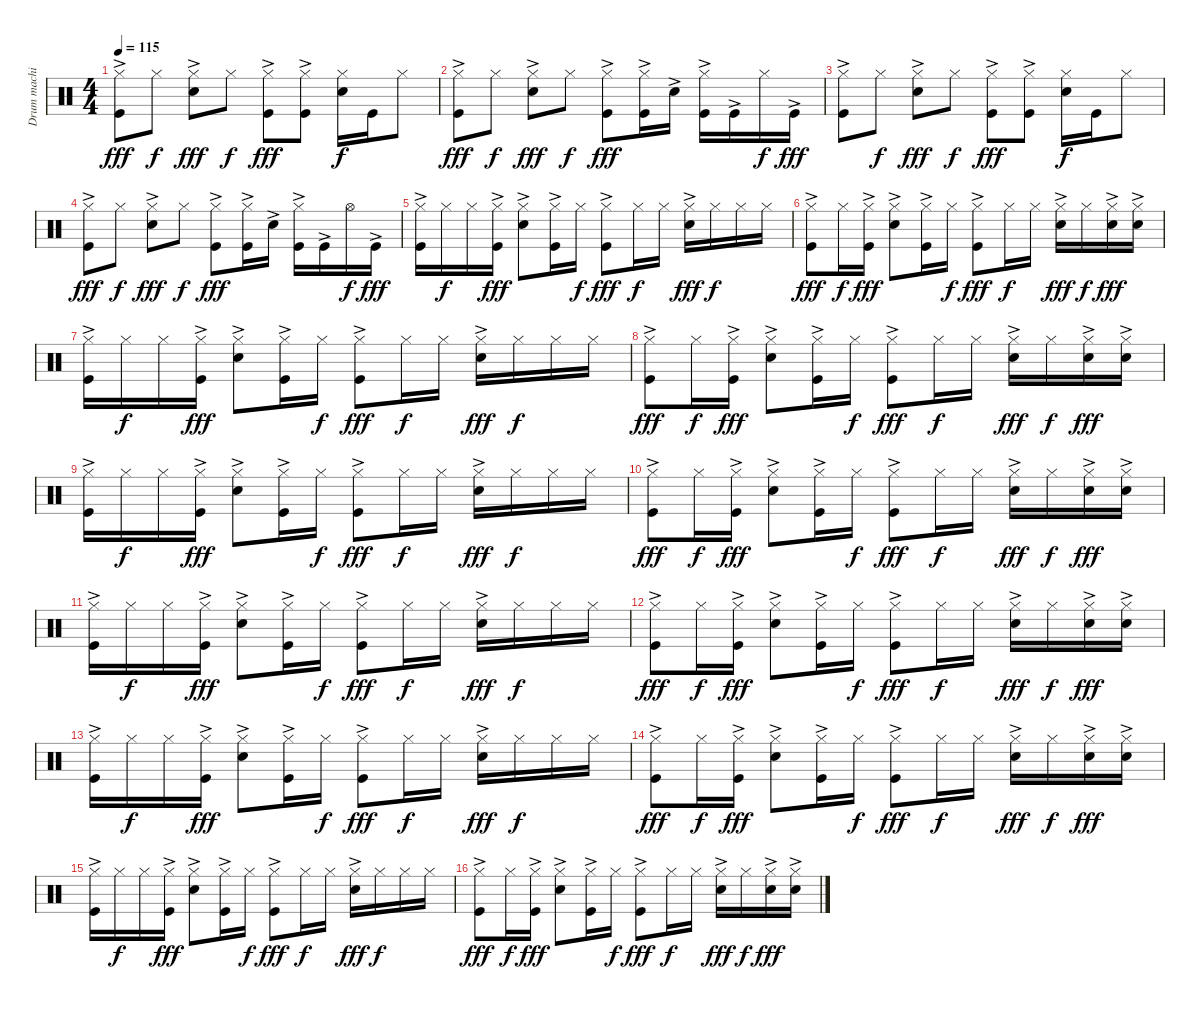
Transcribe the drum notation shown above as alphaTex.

\track ("Drum machine" "Drum machi") {instrument percussion}
\staff {score}
\articulation defaults
\ts (4 4)
\tempo 115
\clef neutral
\ks c
("Hi-Hat (closed)" "Kick (hit)"{ac}).8{dy fff} "Hi-Hat (closed)".8{dy f} ("Hi-Hat (closed)" "Snare (hit) 2"{ac}).8{dy fff} "Hi-Hat (closed)".8{dy f} ("Hi-Hat (closed)" "Kick (hit)"{ac}).8{dy fff} ("Hi-Hat (closed)" "Kick (hit)"{ac}).8 ("Hi-Hat (closed)" "Snare (hit) 2").16{dy f} "Kick (hit)".16 "Hi-Hat (closed)".8 |
("Hi-Hat (closed)" "Kick (hit)"{ac}).8{dy fff} "Hi-Hat (closed)".8{dy f} ("Hi-Hat (closed)" "Snare (hit) 2"{ac}).8{dy fff} "Hi-Hat (closed)".8{dy f} ("Hi-Hat (closed)" "Kick (hit)"{ac}).8{dy fff} ("Hi-Hat (closed)" "Kick (hit)"{ac}).16 "Snare (hit) 2"{ac}.16 ("Hi-Hat (closed)" "Kick (hit)"{ac}).16 "Kick (hit)"{ac}.16 "Hi-Hat (closed)".16{dy f} "Kick (hit)"{ac}.16{dy fff} |
("Hi-Hat (closed)" "Kick (hit)"{ac}).8 "Hi-Hat (closed)".8{dy f} ("Hi-Hat (closed)" "Snare (hit) 2"{ac}).8{dy fff} "Hi-Hat (closed)".8{dy f} ("Hi-Hat (closed)" "Kick (hit)"{ac}).8{dy fff} ("Hi-Hat (closed)" "Kick (hit)"{ac}).8 ("Hi-Hat (closed)" "Snare (hit) 2").16{dy f} "Kick (hit)".16 "Hi-Hat (closed)".8 |
("Hi-Hat (closed)" "Kick (hit)"{ac}).8{dy fff} "Hi-Hat (closed)".8{dy f} ("Hi-Hat (closed)" "Snare (hit) 2"{ac}).8{dy fff} "Hi-Hat (closed)".8{dy f} ("Hi-Hat (closed)" "Kick (hit)"{ac}).8{dy fff} ("Hi-Hat (closed)" "Kick (hit)"{ac}).16 "Snare (hit) 2"{ac}.16 ("Hi-Hat (closed)" "Kick (hit)"{ac}).16 "Kick (hit)"{ac}.16 "Hi-Hat (open)".16{dy f} "Kick (hit)"{ac}.16{dy fff} |
("Hi-Hat (closed)" "Kick (hit)"{ac}).16 "Hi-Hat (closed)".16{dy f} "Hi-Hat (closed)".16 ("Hi-Hat (closed)" "Kick (hit)"{ac}).16{dy fff} ("Hi-Hat (closed)" "Snare (hit) 2"{ac}).8 ("Hi-Hat (closed)" "Kick (hit)"{ac}).16 "Hi-Hat (closed)".16{dy f} ("Hi-Hat (closed)" "Kick (hit)"{ac}).8{dy fff} "Hi-Hat (closed)".16{dy f} "Hi-Hat (closed)".16 ("Hi-Hat (closed)" "Snare (hit) 2"{ac}).16{dy fff} "Hi-Hat (closed)".16{dy f} "Hi-Hat (closed)".16 "Hi-Hat (closed)".16 |
("Hi-Hat (closed)" "Kick (hit)"{ac}).8{dy fff} "Hi-Hat (closed)".16{dy f} ("Hi-Hat (closed)" "Kick (hit)"{ac}).16{dy fff} ("Hi-Hat (closed)" "Snare (hit) 2"{ac}).8 ("Hi-Hat (closed)" "Kick (hit)"{ac}).16 "Hi-Hat (closed)".16{dy f} ("Hi-Hat (closed)" "Kick (hit)"{ac}).8{dy fff} "Hi-Hat (closed)".16{dy f} "Hi-Hat (closed)".16 ("Hi-Hat (closed)" "Snare (hit) 2"{ac}).16{dy fff} "Hi-Hat (closed)".16{dy f} ("Hi-Hat (closed)" "Snare (hit) 2"{ac}).16{dy fff} ("Hi-Hat (closed)" "Snare (hit) 2"{ac}).16 |
("Hi-Hat (closed)" "Kick (hit)"{ac}).16 "Hi-Hat (closed)".16{dy f} "Hi-Hat (closed)".16 ("Hi-Hat (closed)" "Kick (hit)"{ac}).16{dy fff} ("Hi-Hat (closed)" "Snare (hit) 2"{ac}).8 ("Hi-Hat (closed)" "Kick (hit)"{ac}).16 "Hi-Hat (closed)".16{dy f} ("Hi-Hat (closed)" "Kick (hit)"{ac}).8{dy fff} "Hi-Hat (closed)".16{dy f} "Hi-Hat (closed)".16 ("Hi-Hat (closed)" "Snare (hit) 2"{ac}).16{dy fff} "Hi-Hat (closed)".16{dy f} "Hi-Hat (closed)".16 "Hi-Hat (closed)".16 |
("Hi-Hat (closed)" "Kick (hit)"{ac}).8{dy fff} "Hi-Hat (closed)".16{dy f} ("Hi-Hat (closed)" "Kick (hit)"{ac}).16{dy fff} ("Hi-Hat (closed)" "Snare (hit) 2"{ac}).8 ("Hi-Hat (closed)" "Kick (hit)"{ac}).16 "Hi-Hat (closed)".16{dy f} ("Hi-Hat (closed)" "Kick (hit)"{ac}).8{dy fff} "Hi-Hat (closed)".16{dy f} "Hi-Hat (closed)".16 ("Hi-Hat (closed)" "Snare (hit) 2"{ac}).16{dy fff} "Hi-Hat (closed)".16{dy f} ("Hi-Hat (closed)" "Snare (hit) 2"{ac}).16{dy fff} ("Hi-Hat (closed)" "Snare (hit) 2"{ac}).16 |
("Hi-Hat (closed)" "Kick (hit)"{ac}).16 "Hi-Hat (closed)".16{dy f} "Hi-Hat (closed)".16 ("Hi-Hat (closed)" "Kick (hit)"{ac}).16{dy fff} ("Hi-Hat (closed)" "Snare (hit) 2"{ac}).8 ("Hi-Hat (closed)" "Kick (hit)"{ac}).16 "Hi-Hat (closed)".16{dy f} ("Hi-Hat (closed)" "Kick (hit)"{ac}).8{dy fff} "Hi-Hat (closed)".16{dy f} "Hi-Hat (closed)".16 ("Hi-Hat (closed)" "Snare (hit) 2"{ac}).16{dy fff} "Hi-Hat (closed)".16{dy f} "Hi-Hat (closed)".16 "Hi-Hat (closed)".16 |
("Hi-Hat (closed)" "Kick (hit)"{ac}).8{dy fff} "Hi-Hat (closed)".16{dy f} ("Hi-Hat (closed)" "Kick (hit)"{ac}).16{dy fff} ("Hi-Hat (closed)" "Snare (hit) 2"{ac}).8 ("Hi-Hat (closed)" "Kick (hit)"{ac}).16 "Hi-Hat (closed)".16{dy f} ("Hi-Hat (closed)" "Kick (hit)"{ac}).8{dy fff} "Hi-Hat (closed)".16{dy f} "Hi-Hat (closed)".16 ("Hi-Hat (closed)" "Snare (hit) 2"{ac}).16{dy fff} "Hi-Hat (closed)".16{dy f} ("Hi-Hat (closed)" "Snare (hit) 2"{ac}).16{dy fff} ("Hi-Hat (closed)" "Snare (hit) 2"{ac}).16 |
("Hi-Hat (closed)" "Kick (hit)"{ac}).16 "Hi-Hat (closed)".16{dy f} "Hi-Hat (closed)".16 ("Hi-Hat (closed)" "Kick (hit)"{ac}).16{dy fff} ("Hi-Hat (closed)" "Snare (hit) 2"{ac}).8 ("Hi-Hat (closed)" "Kick (hit)"{ac}).16 "Hi-Hat (closed)".16{dy f} ("Hi-Hat (closed)" "Kick (hit)"{ac}).8{dy fff} "Hi-Hat (closed)".16{dy f} "Hi-Hat (closed)".16 ("Hi-Hat (closed)" "Snare (hit) 2"{ac}).16{dy fff} "Hi-Hat (closed)".16{dy f} "Hi-Hat (closed)".16 "Hi-Hat (closed)".16 |
("Hi-Hat (closed)" "Kick (hit)"{ac}).8{dy fff} "Hi-Hat (closed)".16{dy f} ("Hi-Hat (closed)" "Kick (hit)"{ac}).16{dy fff} ("Hi-Hat (closed)" "Snare (hit) 2"{ac}).8 ("Hi-Hat (closed)" "Kick (hit)"{ac}).16 "Hi-Hat (closed)".16{dy f} ("Hi-Hat (closed)" "Kick (hit)"{ac}).8{dy fff} "Hi-Hat (closed)".16{dy f} "Hi-Hat (closed)".16 ("Hi-Hat (closed)" "Snare (hit) 2"{ac}).16{dy fff} "Hi-Hat (closed)".16{dy f} ("Hi-Hat (closed)" "Snare (hit) 2"{ac}).16{dy fff} ("Hi-Hat (closed)" "Snare (hit) 2"{ac}).16 |
("Hi-Hat (closed)" "Kick (hit)"{ac}).16 "Hi-Hat (closed)".16{dy f} "Hi-Hat (closed)".16 ("Hi-Hat (closed)" "Kick (hit)"{ac}).16{dy fff} ("Hi-Hat (closed)" "Snare (hit) 2"{ac}).8 ("Hi-Hat (closed)" "Kick (hit)"{ac}).16 "Hi-Hat (closed)".16{dy f} ("Hi-Hat (closed)" "Kick (hit)"{ac}).8{dy fff} "Hi-Hat (closed)".16{dy f} "Hi-Hat (closed)".16 ("Hi-Hat (closed)" "Snare (hit) 2"{ac}).16{dy fff} "Hi-Hat (closed)".16{dy f} "Hi-Hat (closed)".16 "Hi-Hat (closed)".16 |
("Hi-Hat (closed)" "Kick (hit)"{ac}).8{dy fff} "Hi-Hat (closed)".16{dy f} ("Hi-Hat (closed)" "Kick (hit)"{ac}).16{dy fff} ("Hi-Hat (closed)" "Snare (hit) 2"{ac}).8 ("Hi-Hat (closed)" "Kick (hit)"{ac}).16 "Hi-Hat (closed)".16{dy f} ("Hi-Hat (closed)" "Kick (hit)"{ac}).8{dy fff} "Hi-Hat (closed)".16{dy f} "Hi-Hat (closed)".16 ("Hi-Hat (closed)" "Snare (hit) 2"{ac}).16{dy fff} "Hi-Hat (closed)".16{dy f} ("Hi-Hat (closed)" "Snare (hit) 2"{ac}).16{dy fff} ("Hi-Hat (closed)" "Snare (hit) 2"{ac}).16 |
("Hi-Hat (closed)" "Kick (hit)"{ac}).16 "Hi-Hat (closed)".16{dy f} "Hi-Hat (closed)".16 ("Hi-Hat (closed)" "Kick (hit)"{ac}).16{dy fff} ("Hi-Hat (closed)" "Snare (hit) 2"{ac}).8 ("Hi-Hat (closed)" "Kick (hit)"{ac}).16 "Hi-Hat (closed)".16{dy f} ("Hi-Hat (closed)" "Kick (hit)"{ac}).8{dy fff} "Hi-Hat (closed)".16{dy f} "Hi-Hat (closed)".16 ("Hi-Hat (closed)" "Snare (hit) 2"{ac}).16{dy fff} "Hi-Hat (closed)".16{dy f} "Hi-Hat (closed)".16 "Hi-Hat (closed)".16 |
("Hi-Hat (closed)" "Kick (hit)"{ac}).8{dy fff} "Hi-Hat (closed)".16{dy f} ("Hi-Hat (closed)" "Kick (hit)"{ac}).16{dy fff} ("Hi-Hat (closed)" "Snare (hit) 2"{ac}).8 ("Hi-Hat (closed)" "Kick (hit)"{ac}).16 "Hi-Hat (closed)".16{dy f} ("Hi-Hat (closed)" "Kick (hit)"{ac}).8{dy fff} "Hi-Hat (closed)".16{dy f} "Hi-Hat (closed)".16 ("Hi-Hat (closed)" "Snare (hit) 2"{ac}).16{dy fff} "Hi-Hat (closed)".16{dy f} ("Hi-Hat (closed)" "Snare (hit) 2"{ac}).16{dy fff} ("Hi-Hat (closed)" "Snare (hit) 2"{ac}).16
